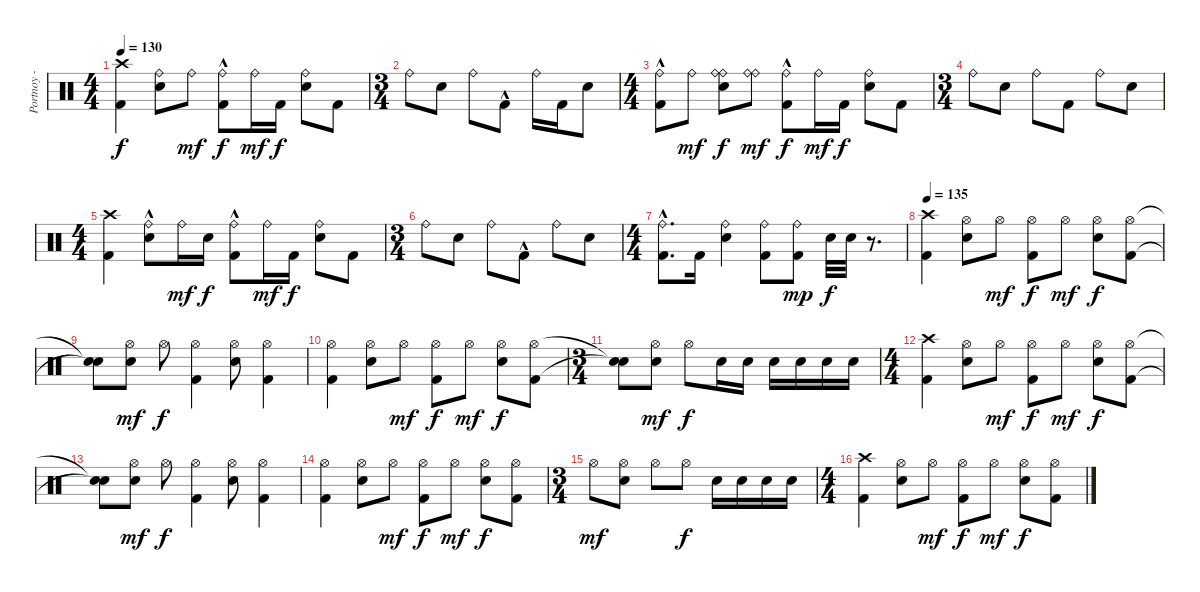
\track ("Portnoy - Drums" "Portnoy - ") {instrument percussion}
\staff {score}
\articulation defaults
\ts (4 4)
\tempo 130
\clef neutral
\ks c
("Crash high (hit)" "Kick (hit) 2").4{dy f} ("Electric Snare (hit)" "Ride (bell)").8 "Ride (bell)".8{dy mf} ("Kick (hit) 2"{hac} "Ride (bell)").8{dy f} "Ride (bell)".16{dy mf} "Kick (hit) 2".16{dy f} ("Ride (bell)" "Electric Snare (hit)").8 "Kick (hit) 2".8 |
\ts (3 4)
"Ride (bell)".8 "Electric Snare (hit)".8 "Ride (bell)".8 "Kick (hit) 2"{hac}.8 "Ride (bell)".16 "Kick (hit) 2".16 "Electric Snare (hit)".8 |
\ts (4 4)
("Kick (hit) 2"{hac} "Ride (bell)").8 "Ride (bell)".8{dy mf} ("Electric Snare (hit)" "Ride (bell)" "Ride (bell)").8{dy f} ("Ride (bell)" "Ride (bell)").8{dy mf} ("Kick (hit) 2"{hac} "Ride (bell)").8{dy f} "Ride (bell)".16{dy mf} "Kick (hit) 2".16{dy f} ("Ride (bell)" "Electric Snare (hit)").8 "Kick (hit) 2".8 |
\ts (3 4)
"Ride (bell)".8 "Electric Snare (hit)".8 "Ride (bell)".8 "Kick (hit) 2".8 "Ride (bell)".8 "Electric Snare (hit)".8 |
\ts (4 4)
("Kick (hit) 2" "Crash high (hit)").4 ("Ride (bell)" "Electric Snare (hit)"{hac}).8 "Ride (bell)".16{dy mf} "Electric Snare (hit)".16{dy f} ("Kick (hit) 2"{hac} "Ride (bell)").8 "Ride (bell)".16{dy mf} "Kick (hit) 2".16{dy f} ("Ride (bell)" "Electric Snare (hit)").8 "Kick (hit) 2".8 |
\ts (3 4)
"Ride (bell)".8 "Electric Snare (hit)".8 "Ride (bell)".8 "Kick (hit) 2"{hac}.8 "Ride (bell)".8 "Electric Snare (hit)".8 |
\ts (4 4)
("Ride (bell)" "Kick (hit) 2"{hac}).8{d} "Kick (hit) 2".16 ("Ride (bell)" "Electric Snare (hit)").4 ("Kick (hit) 2" "Ride (bell)").8 ("Kick (hit) 2" "Ride (bell)").8{dy mp} "Electric Snare (hit)".32{dy f} "Electric Snare (hit)".32 r.8{d} |
\tempo 135
("Kick (hit) 2" "Crash high (hit)").4 ("Electric Snare (hit)" "Hi-Hat (open)").8 "Hi-Hat (open)".8{dy mf} ("Kick (hit) 2" "Hi-Hat (open)").8{dy f} "Hi-Hat (open)".8{dy mf} ("Electric Snare (hit)" "Hi-Hat (open)").8{dy f} ("Kick (hit) 2" "Hi-Hat (open)").8 |
("Snare (hit)"{t} "Snare (hit)"{t}).8 ("Electric Snare (hit)" "Hi-Hat (open)").8{dy mf} "Hi-Hat (open)".8{dy f} ("Kick (hit) 2" "Hi-Hat (open)").4 ("Electric Snare (hit)" "Hi-Hat (open)").8 ("Hi-Hat (open)" "Kick (hit) 2").4 |
("Kick (hit) 2" "Hi-Hat (open)").4 ("Electric Snare (hit)" "Hi-Hat (open)").8 "Hi-Hat (open)".8{dy mf} ("Kick (hit) 2" "Hi-Hat (open)").8{dy f} "Hi-Hat (open)".8{dy mf} ("Electric Snare (hit)" "Hi-Hat (open)").8{dy f} ("Kick (hit) 2" "Hi-Hat (open)").8 |
\ts (3 4)
("Snare (hit)"{t} "Snare (hit)"{t}).8 ("Electric Snare (hit)" "Hi-Hat (open)").8{dy mf} "Hi-Hat (open)".8{dy f} "Electric Snare (hit)".16 "Electric Snare (hit)".16 "Electric Snare (hit)".16 "Electric Snare (hit)".16 "Electric Snare (hit)".16 "Electric Snare (hit)".16 |
\ts (4 4)
("Crash high (hit)" "Kick (hit) 2").4 ("Electric Snare (hit)" "Hi-Hat (open)").8 "Hi-Hat (open)".8{dy mf} ("Kick (hit) 2" "Hi-Hat (open)").8{dy f} "Hi-Hat (open)".8{dy mf} ("Electric Snare (hit)" "Hi-Hat (open)").8{dy f} ("Kick (hit) 2" "Hi-Hat (open)").8 |
("Snare (hit)"{t} "Snare (hit)"{t}).8 ("Electric Snare (hit)" "Hi-Hat (open)").8{dy mf} "Hi-Hat (open)".8{dy f} ("Kick (hit) 2" "Hi-Hat (open)").4 ("Electric Snare (hit)" "Hi-Hat (open)").8 ("Hi-Hat (open)" "Kick (hit) 2").4 |
("Kick (hit) 2" "Hi-Hat (open)").4 ("Electric Snare (hit)" "Hi-Hat (open)").8 "Hi-Hat (open)".8{dy mf} ("Kick (hit) 2" "Hi-Hat (open)").8{dy f} "Hi-Hat (open)".8{dy mf} ("Electric Snare (hit)" "Hi-Hat (open)").8{dy f} ("Kick (hit) 2" "Hi-Hat (open)").8 |
\ts (3 4)
"Hi-Hat (open)".8{dy mf} ("Electric Snare (hit)" "Hi-Hat (open)").8 "Hi-Hat (open)".8 "Hi-Hat (open)".8{dy f} "Electric Snare (hit)".16 "Electric Snare (hit)".16 "Electric Snare (hit)".16 "Electric Snare (hit)".16 |
\ts (4 4)
("Kick (hit) 2" "Crash high (hit)").4 ("Electric Snare (hit)" "Hi-Hat (open)").8 "Hi-Hat (open)".8{dy mf} ("Kick (hit) 2" "Hi-Hat (open)").8{dy f} "Hi-Hat (open)".8{dy mf} ("Electric Snare (hit)" "Hi-Hat (open)").8{dy f} ("Kick (hit) 2" "Hi-Hat (open)").8
